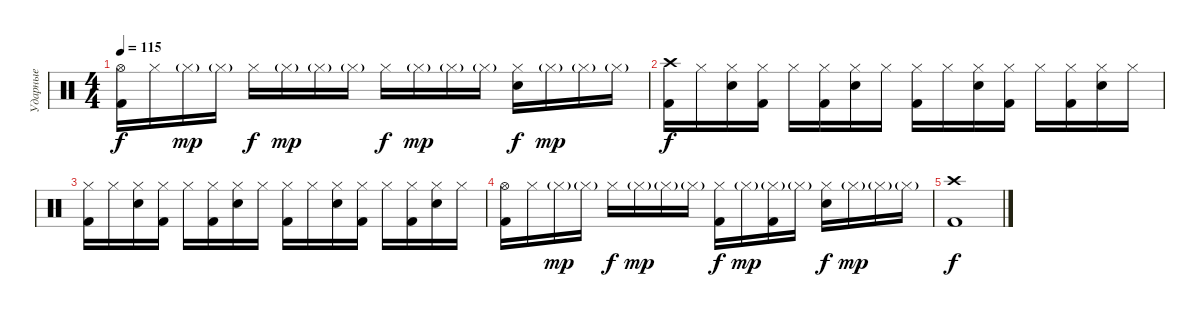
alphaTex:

\track ("Ударные" "Ударные") {instrument percussion}
\staff {score}
\articulation defaults
\ts (4 4)
\tempo 115
\clef neutral
\ks c
("Kick (hit) 2" "Hi-Hat (open)").16{dy f} "Hi-Hat (closed)".16 "Hi-Hat (closed)"{g}.16{dy mp} "Hi-Hat (closed)"{g}.16 "Hi-Hat (closed)".16{dy f} "Hi-Hat (closed)"{g}.16{dy mp} "Hi-Hat (closed)"{g}.16 "Hi-Hat (closed)"{g}.16 "Hi-Hat (closed)".16{dy f} "Hi-Hat (closed)"{g}.16{dy mp} "Hi-Hat (closed)"{g}.16 "Hi-Hat (closed)"{g}.16 ("Electric Snare (hit)" "Hi-Hat (closed)").16{dy f} "Hi-Hat (closed)"{g}.16{dy mp} "Hi-Hat (closed)"{g}.16 "Hi-Hat (closed)"{g}.16 |
("Kick (hit) 2" "Crash high (hit)").16{dy f} "Hi-Hat (closed)".16 ("Electric Snare (hit)" "Hi-Hat (closed)").16 ("Kick (hit) 2" "Hi-Hat (closed)").16 "Hi-Hat (closed)".16 ("Kick (hit) 2" "Hi-Hat (closed)").16 ("Electric Snare (hit)" "Hi-Hat (closed)").16 "Hi-Hat (closed)".16 ("Kick (hit) 2" "Hi-Hat (closed)").16 "Hi-Hat (closed)".16 ("Electric Snare (hit)" "Hi-Hat (closed)").16 ("Kick (hit) 2" "Hi-Hat (closed)").16 "Hi-Hat (closed)".16 ("Kick (hit) 2" "Hi-Hat (closed)").16 ("Electric Snare (hit)" "Hi-Hat (closed)").16 "Hi-Hat (closed)".16 |
("Kick (hit) 2" "Hi-Hat (closed)").16 "Hi-Hat (closed)".16 ("Electric Snare (hit)" "Hi-Hat (closed)").16 ("Kick (hit) 2" "Hi-Hat (closed)").16 "Hi-Hat (closed)".16 ("Kick (hit) 2" "Hi-Hat (closed)").16 ("Electric Snare (hit)" "Hi-Hat (closed)").16 "Hi-Hat (closed)".16 ("Kick (hit) 2" "Hi-Hat (closed)").16 "Hi-Hat (closed)".16 ("Electric Snare (hit)" "Hi-Hat (closed)").16 ("Kick (hit) 2" "Hi-Hat (closed)").16 "Hi-Hat (closed)".16 ("Kick (hit) 2" "Hi-Hat (closed)").16 ("Electric Snare (hit)" "Hi-Hat (closed)").16 "Hi-Hat (closed)".16 |
("Kick (hit) 2" "Hi-Hat (open)").16 "Hi-Hat (closed)".16 "Hi-Hat (closed)"{g}.16{dy mp} "Hi-Hat (closed)"{g}.16 "Hi-Hat (closed)".16{dy f} "Hi-Hat (closed)"{g}.16{dy mp} "Hi-Hat (closed)"{g}.16 "Hi-Hat (closed)"{g}.16 ("Kick (hit) 2" "Hi-Hat (closed)").16{dy f} "Hi-Hat (closed)"{g}.16{dy mp} ("Kick (hit) 2" "Hi-Hat (closed)"{g}).16 "Hi-Hat (closed)"{g}.16 ("Electric Snare (hit)" "Hi-Hat (closed)").16{dy f} "Hi-Hat (closed)"{g}.16{dy mp} "Hi-Hat (closed)"{g}.16 "Hi-Hat (closed)"{g}.16 |
("Kick (hit) 2" "Crash high (hit)").1{dy f}
